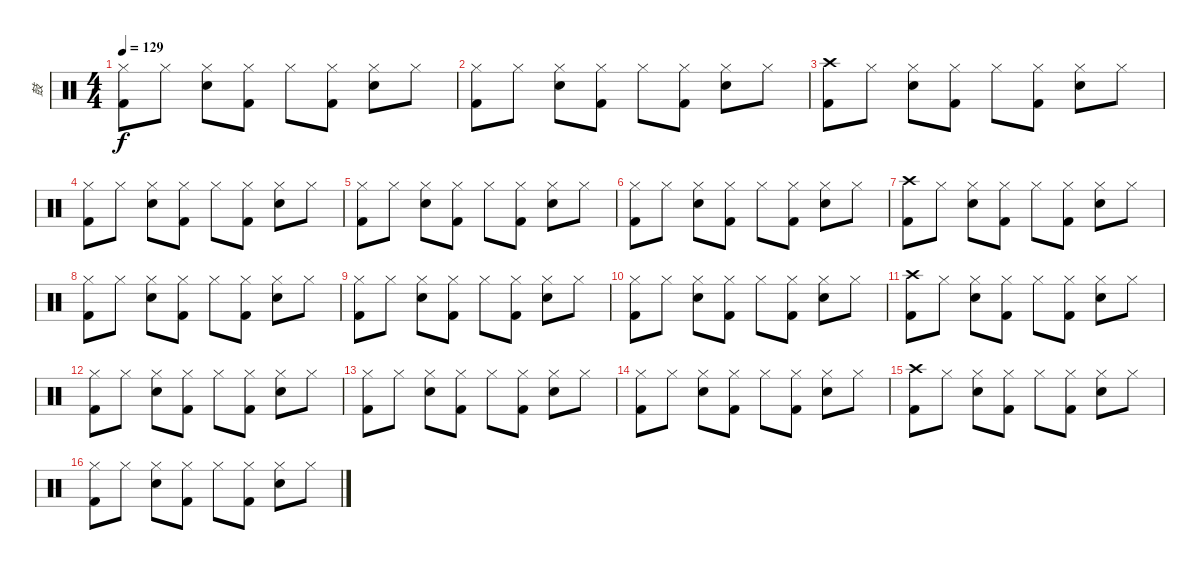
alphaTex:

\track ("鼓" "鼓") {instrument percussion}
\staff {score}
\articulation defaults
\ts (4 4)
\tempo 129
\clef neutral
\ks c
("Hi-Hat (closed)" "Kick (hit) 2").8{dy f} "Hi-Hat (closed)".8 ("Hi-Hat (closed)" "Snare (hit) 2").8 ("Hi-Hat (closed)" "Kick (hit) 2").8 "Hi-Hat (closed)".8 ("Hi-Hat (closed)" "Kick (hit) 2").8 ("Hi-Hat (closed)" "Snare (hit) 2").8 "Hi-Hat (closed)".8 |
("Hi-Hat (closed)" "Kick (hit) 2").8 "Hi-Hat (closed)".8 ("Hi-Hat (closed)" "Snare (hit) 2").8 ("Hi-Hat (closed)" "Kick (hit) 2").8 "Hi-Hat (closed)".8 ("Hi-Hat (closed)" "Kick (hit) 2").8 ("Hi-Hat (closed)" "Snare (hit) 2").8 "Hi-Hat (closed)".8 |
("Crash high (hit)" "Kick (hit) 2").8 "Hi-Hat (closed)".8 ("Hi-Hat (closed)" "Snare (hit) 2").8 ("Hi-Hat (closed)" "Kick (hit) 2").8 "Hi-Hat (closed)".8 ("Hi-Hat (closed)" "Kick (hit) 2").8 ("Hi-Hat (closed)" "Snare (hit) 2").8 "Hi-Hat (closed)".8 |
("Hi-Hat (closed)" "Kick (hit) 2").8 "Hi-Hat (closed)".8 ("Hi-Hat (closed)" "Snare (hit) 2").8 ("Hi-Hat (closed)" "Kick (hit) 2").8 "Hi-Hat (closed)".8 ("Hi-Hat (closed)" "Kick (hit) 2").8 ("Hi-Hat (closed)" "Snare (hit) 2").8 "Hi-Hat (closed)".8 |
("Hi-Hat (closed)" "Kick (hit) 2").8 "Hi-Hat (closed)".8 ("Hi-Hat (closed)" "Snare (hit) 2").8 ("Hi-Hat (closed)" "Kick (hit) 2").8 "Hi-Hat (closed)".8 ("Hi-Hat (closed)" "Kick (hit) 2").8 ("Hi-Hat (closed)" "Snare (hit) 2").8 "Hi-Hat (closed)".8 |
("Hi-Hat (closed)" "Kick (hit) 2").8 "Hi-Hat (closed)".8 ("Hi-Hat (closed)" "Snare (hit) 2").8 ("Hi-Hat (closed)" "Kick (hit) 2").8 "Hi-Hat (closed)".8 ("Hi-Hat (closed)" "Kick (hit) 2").8 ("Hi-Hat (closed)" "Snare (hit) 2").8 "Hi-Hat (closed)".8 |
("Crash high (hit)" "Kick (hit) 2").8 "Hi-Hat (closed)".8 ("Hi-Hat (closed)" "Snare (hit) 2").8 ("Hi-Hat (closed)" "Kick (hit) 2").8 "Hi-Hat (closed)".8 ("Hi-Hat (closed)" "Kick (hit) 2").8 ("Hi-Hat (closed)" "Snare (hit) 2").8 "Hi-Hat (closed)".8 |
("Hi-Hat (closed)" "Kick (hit) 2").8 "Hi-Hat (closed)".8 ("Hi-Hat (closed)" "Snare (hit) 2").8 ("Hi-Hat (closed)" "Kick (hit) 2").8 "Hi-Hat (closed)".8 ("Hi-Hat (closed)" "Kick (hit) 2").8 ("Hi-Hat (closed)" "Snare (hit) 2").8 "Hi-Hat (closed)".8 |
("Hi-Hat (closed)" "Kick (hit) 2").8 "Hi-Hat (closed)".8 ("Hi-Hat (closed)" "Snare (hit) 2").8 ("Hi-Hat (closed)" "Kick (hit) 2").8 "Hi-Hat (closed)".8 ("Hi-Hat (closed)" "Kick (hit) 2").8 ("Hi-Hat (closed)" "Snare (hit) 2").8 "Hi-Hat (closed)".8 |
("Hi-Hat (closed)" "Kick (hit) 2").8 "Hi-Hat (closed)".8 ("Hi-Hat (closed)" "Snare (hit) 2").8 ("Hi-Hat (closed)" "Kick (hit) 2").8 "Hi-Hat (closed)".8 ("Hi-Hat (closed)" "Kick (hit) 2").8 ("Hi-Hat (closed)" "Snare (hit) 2").8 "Hi-Hat (closed)".8 |
("Crash high (hit)" "Kick (hit) 2").8 "Hi-Hat (closed)".8 ("Hi-Hat (closed)" "Snare (hit) 2").8 ("Hi-Hat (closed)" "Kick (hit) 2").8 "Hi-Hat (closed)".8 ("Hi-Hat (closed)" "Kick (hit) 2").8 ("Hi-Hat (closed)" "Snare (hit) 2").8 "Hi-Hat (closed)".8 |
("Hi-Hat (closed)" "Kick (hit) 2").8 "Hi-Hat (closed)".8 ("Hi-Hat (closed)" "Snare (hit) 2").8 ("Hi-Hat (closed)" "Kick (hit) 2").8 "Hi-Hat (closed)".8 ("Hi-Hat (closed)" "Kick (hit) 2").8 ("Hi-Hat (closed)" "Snare (hit) 2").8 "Hi-Hat (closed)".8 |
("Hi-Hat (closed)" "Kick (hit) 2").8 "Hi-Hat (closed)".8 ("Hi-Hat (closed)" "Snare (hit) 2").8 ("Hi-Hat (closed)" "Kick (hit) 2").8 "Hi-Hat (closed)".8 ("Hi-Hat (closed)" "Kick (hit) 2").8 ("Hi-Hat (closed)" "Snare (hit) 2").8 "Hi-Hat (closed)".8 |
("Hi-Hat (closed)" "Kick (hit) 2").8 "Hi-Hat (closed)".8 ("Hi-Hat (closed)" "Snare (hit) 2").8 ("Hi-Hat (closed)" "Kick (hit) 2").8 "Hi-Hat (closed)".8 ("Hi-Hat (closed)" "Kick (hit) 2").8 ("Hi-Hat (closed)" "Snare (hit) 2").8 "Hi-Hat (closed)".8 |
("Crash high (hit)" "Kick (hit) 2").8 "Hi-Hat (closed)".8 ("Hi-Hat (closed)" "Snare (hit) 2").8 ("Hi-Hat (closed)" "Kick (hit) 2").8 "Hi-Hat (closed)".8 ("Hi-Hat (closed)" "Kick (hit) 2").8 ("Hi-Hat (closed)" "Snare (hit) 2").8 "Hi-Hat (closed)".8 |
("Hi-Hat (closed)" "Kick (hit) 2").8 "Hi-Hat (closed)".8 ("Hi-Hat (closed)" "Snare (hit) 2").8 ("Hi-Hat (closed)" "Kick (hit) 2").8 "Hi-Hat (closed)".8 ("Hi-Hat (closed)" "Kick (hit) 2").8 ("Hi-Hat (closed)" "Snare (hit) 2").8 "Hi-Hat (closed)".8
